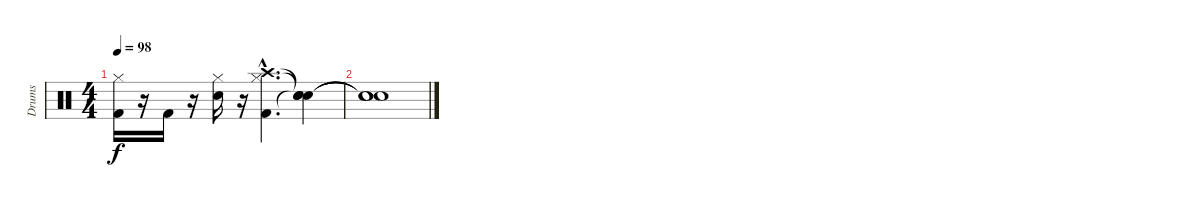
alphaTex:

\track ("Drums" "Drums") {instrument percussion}
\staff {score}
\articulation defaults
\ts (4 4)
\tempo 98
\clef neutral
\ks c
("Kick (hit) 2" "Hi-Hat (closed)").16{dy f} r.16 "Kick (hit) 2".16 r.16 ("Snare (hit) 2" "Hi-Hat (closed)").16 r.16 ("Kick (hit) 2"{hac} "Hi-Hat (closed)"{hac} "Crash high (hit)"{hac}).4{d} ("Snare (hit)"{t} "Snare (hit)"{t} "Snare (hit)"{t}).4 |
("Snare (hit)"{t} "Snare (hit)"{t} "Snare (hit)"{t}).1
